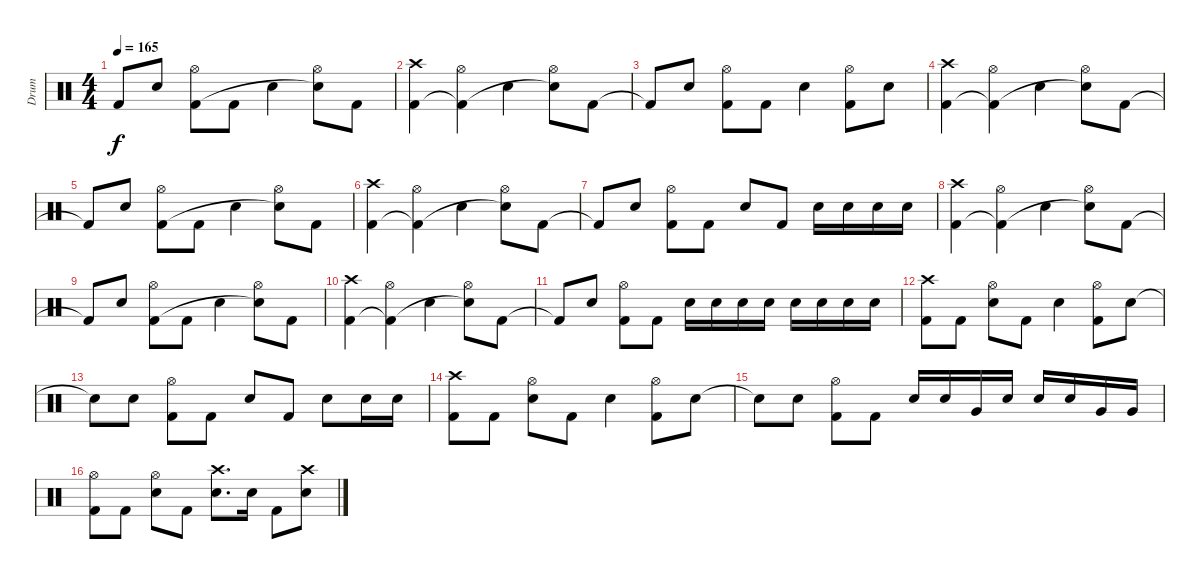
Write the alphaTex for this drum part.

\track ("Drum" "Drum") {instrument percussion}
\staff {score}
\articulation defaults
\ts (4 4)
\tempo 165
\clef neutral
\ks c "Kick (hit) 2"{t}.8{dy f} "Electric Snare (hit)".8
("Hi-Hat (open)" "Kick (hit) 2").8 "Kick (hit) 2".8 "Electric Snare (hit)".4 ("Hi-Hat (open)" "Electric Snare (hit)"{t}).8 "Kick (hit) 2".8 |
("Crash high (hit)" "Kick (hit) 2").4 ("Hi-Hat (open)" "Kick (hit) 2"{t}).4 "Electric Snare (hit)".4 ("Hi-Hat (open)" "Electric Snare (hit)"{t}).8 "Kick (hit) 2".8 |
"Kick (hit) 2"{t}.8 "Electric Snare (hit)".8 ("Hi-Hat (open)" "Kick (hit) 2").8 "Kick (hit) 2".8 "Electric Snare (hit)".4 ("Hi-Hat (open)" "Kick (hit) 2").8 "Electric Snare (hit)".8 |
("Crash high (hit)" "Kick (hit) 2").4 ("Hi-Hat (open)" "Kick (hit) 2"{t}).4 "Electric Snare (hit)".4 ("Hi-Hat (open)" "Electric Snare (hit)"{t}).8 "Kick (hit) 2".8 |
"Kick (hit) 2"{t}.8 "Electric Snare (hit)".8 ("Hi-Hat (open)" "Kick (hit) 2").8 "Kick (hit) 2".8 "Electric Snare (hit)".4 ("Hi-Hat (open)" "Electric Snare (hit)"{t}).8 "Kick (hit) 2".8 |
("Crash high (hit)" "Kick (hit) 2").4 ("Hi-Hat (open)" "Kick (hit) 2"{t}).4 "Electric Snare (hit)".4 ("Hi-Hat (open)" "Electric Snare (hit)"{t}).8 "Kick (hit) 2".8 |
"Kick (hit) 2"{t}.8 "Electric Snare (hit)".8 ("Hi-Hat (open)" "Kick (hit) 2").8 "Kick (hit) 2".8 "Electric Snare (hit)".8 "Kick (hit) 2".8 "Electric Snare (hit)".16 "Electric Snare (hit)".16 "Electric Snare (hit)".16 "Electric Snare (hit)".16 |
("Crash high (hit)" "Kick (hit) 2").4 ("Hi-Hat (open)" "Kick (hit) 2"{t}).4 "Electric Snare (hit)".4 ("Hi-Hat (open)" "Electric Snare (hit)"{t}).8 "Kick (hit) 2".8 |
"Kick (hit) 2"{t}.8 "Electric Snare (hit)".8 ("Hi-Hat (open)" "Kick (hit) 2").8 "Kick (hit) 2".8 "Electric Snare (hit)".4 ("Hi-Hat (open)" "Electric Snare (hit)"{t}).8 "Kick (hit) 2".8 |
("Crash high (hit)" "Kick (hit) 2").4 ("Hi-Hat (open)" "Kick (hit) 2"{t}).4 "Electric Snare (hit)".4 ("Hi-Hat (open)" "Electric Snare (hit)"{t}).8 "Kick (hit) 2".8 |
"Kick (hit) 2"{t}.8 "Electric Snare (hit)".8 ("Hi-Hat (open)" "Kick (hit) 2").8 "Kick (hit) 2".8 "Electric Snare (hit)".16 "Electric Snare (hit)".16 "Electric Snare (hit)".16 "Electric Snare (hit)".16 "Electric Snare (hit)".16 "Electric Snare (hit)".16 "Electric Snare (hit)".16 "Electric Snare (hit)".16 |
("Crash high (hit)" "Kick (hit) 2").8 "Kick (hit) 2".8 ("Hi-Hat (open)" "Electric Snare (hit)").8 "Kick (hit) 2".8 "Electric Snare (hit)".4 ("Hi-Hat (open)" "Kick (hit) 2").8 "Electric Snare (hit)".8 |
"Electric Snare (hit)"{t}.8 "Electric Snare (hit)".8 ("Hi-Hat (open)" "Kick (hit) 2").8 "Kick (hit) 2".8 "Electric Snare (hit)".8 "Kick (hit) 2".8 "Electric Snare (hit)".8 "Electric Snare (hit)".16 "Electric Snare (hit)".16 |
("Crash high (hit)" "Kick (hit) 2").8 "Kick (hit) 2".8 ("Hi-Hat (open)" "Electric Snare (hit)").8 "Kick (hit) 2".8 "Electric Snare (hit)".4 ("Hi-Hat (open)" "Kick (hit) 2").8 "Electric Snare (hit)".8 |
"Electric Snare (hit)"{t}.8 "Electric Snare (hit)".8 ("Hi-Hat (open)" "Kick (hit) 2").8 "Kick (hit) 2".8 "Electric Snare (hit)".16 "Electric Snare (hit)".16 "Very Low Tom (hit)".16 "Electric Snare (hit)".16 "Electric Snare (hit)".16 "Electric Snare (hit)".16 "Very Low Tom (hit)".16 "Very Low Tom (hit)".16 |
("Hi-Hat (open)" "Kick (hit) 2").8 "Kick (hit) 2".8 ("Hi-Hat (open)" "Electric Snare (hit)").8 "Kick (hit) 2".8 ("Crash high (hit)" "Electric Snare (hit)").8{d} "Electric Snare (hit)".16 "Kick (hit) 2".8 ("Crash high (hit)" "Electric Snare (hit)").8
